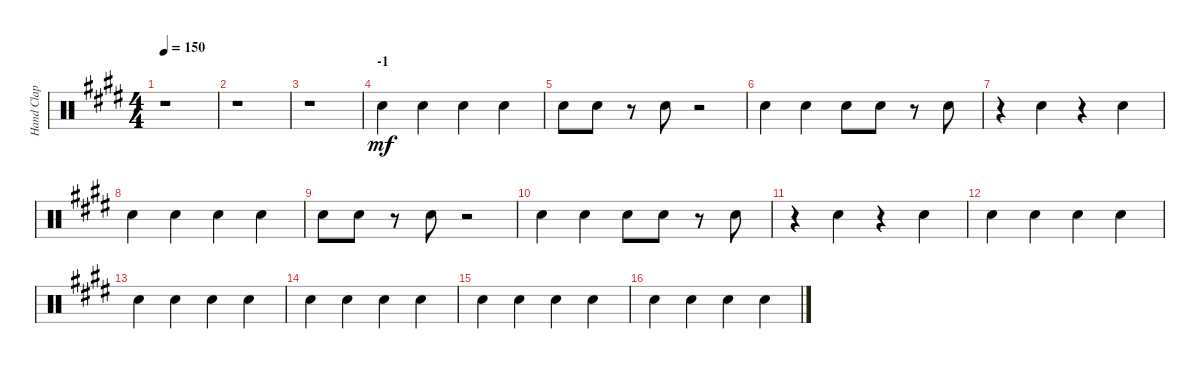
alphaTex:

\track ("Hand Clap" "Hand Clap") {instrument percussion}
\staff {score}
\articulation defaults
\ts (4 4)
\tempo 150
\clef neutral
\ks e
r.1{dy mf} |
r.1 |
r.1 |
\section ("" "-1")
"Hand Clap (hit)".4 "Hand Clap (hit)".4 "Hand Clap (hit)".4 "Hand Clap (hit)".4 |
"Hand Clap (hit)".8 "Hand Clap (hit)".8 r.8 "Hand Clap (hit)".8 r.2 |
"Hand Clap (hit)".4 "Hand Clap (hit)".4 "Hand Clap (hit)".8 "Hand Clap (hit)".8 r.8 "Hand Clap (hit)".8 |
r.4 "Hand Clap (hit)".4 r.4 "Hand Clap (hit)".4 |
"Hand Clap (hit)".4 "Hand Clap (hit)".4 "Hand Clap (hit)".4 "Hand Clap (hit)".4 |
"Hand Clap (hit)".8 "Hand Clap (hit)".8 r.8 "Hand Clap (hit)".8 r.2 |
"Hand Clap (hit)".4 "Hand Clap (hit)".4 "Hand Clap (hit)".8 "Hand Clap (hit)".8 r.8 "Hand Clap (hit)".8 |
r.4 "Hand Clap (hit)".4 r.4 "Hand Clap (hit)".4 |
"Hand Clap (hit)".4 "Hand Clap (hit)".4 "Hand Clap (hit)".4 "Hand Clap (hit)".4 |
"Hand Clap (hit)".4 "Hand Clap (hit)".4 "Hand Clap (hit)".4 "Hand Clap (hit)".4 |
"Hand Clap (hit)".4 "Hand Clap (hit)".4 "Hand Clap (hit)".4 "Hand Clap (hit)".4 |
"Hand Clap (hit)".4 "Hand Clap (hit)".4 "Hand Clap (hit)".4 "Hand Clap (hit)".4 |
"Hand Clap (hit)".4 "Hand Clap (hit)".4 "Hand Clap (hit)".4 "Hand Clap (hit)".4
